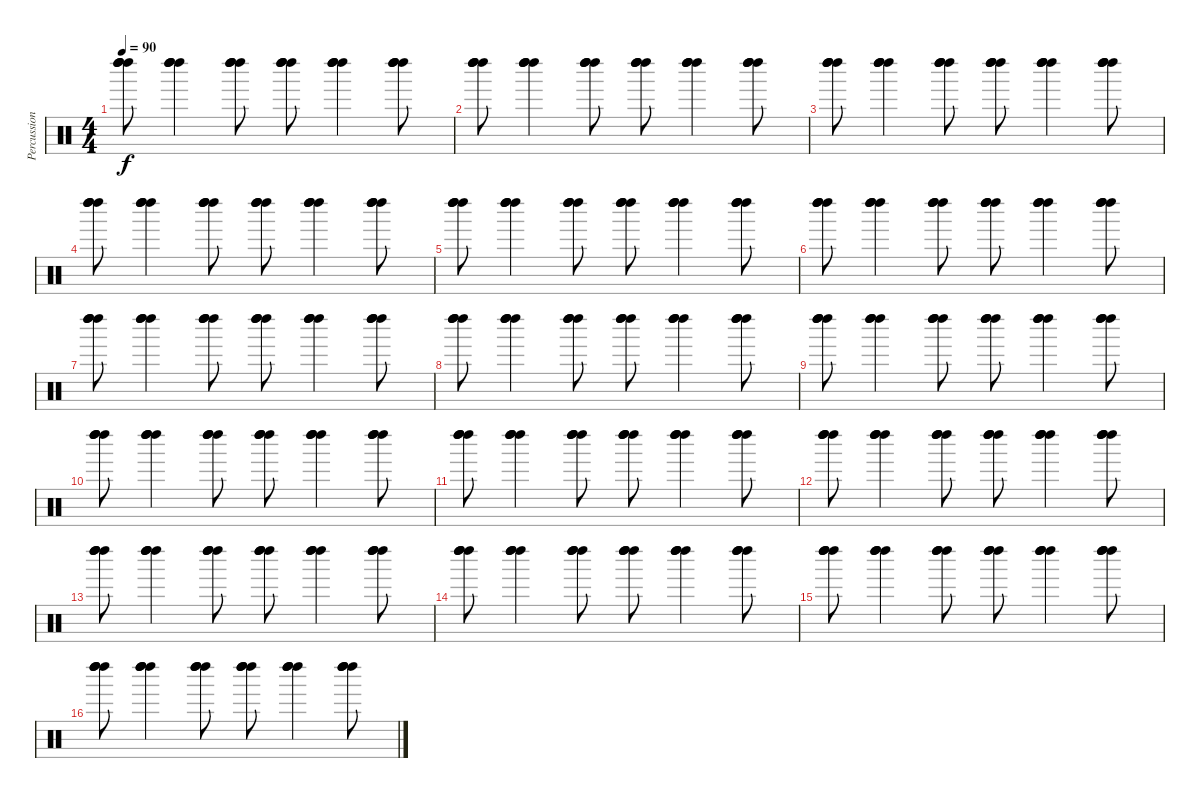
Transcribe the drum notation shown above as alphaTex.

\track ("Percussions" "Percussion") {instrument percussion}
\staff {score}
\articulation defaults
\ts (4 4)
\tempo 90
\clef neutral
\ks c
("Left Maraca (hit)" "Left Maraca (hit)" "Left Maraca (hit)" "Left Maraca (hit)").8{dy f} ("Left Maraca (hit)" "Left Maraca (hit)" "Left Maraca (hit)" "Left Maraca (hit)").4 ("Left Maraca (hit)" "Left Maraca (hit)" "Left Maraca (hit)" "Left Maraca (hit)").8 ("Left Maraca (hit)" "Left Maraca (hit)" "Left Maraca (hit)" "Left Maraca (hit)").8 ("Left Maraca (hit)" "Left Maraca (hit)" "Left Maraca (hit)" "Left Maraca (hit)").4 ("Left Maraca (hit)" "Left Maraca (hit)" "Left Maraca (hit)" "Left Maraca (hit)").8 |
("Left Maraca (hit)" "Left Maraca (hit)" "Left Maraca (hit)" "Left Maraca (hit)").8 ("Left Maraca (hit)" "Left Maraca (hit)" "Left Maraca (hit)" "Left Maraca (hit)").4 ("Left Maraca (hit)" "Left Maraca (hit)" "Left Maraca (hit)" "Left Maraca (hit)").8 ("Left Maraca (hit)" "Left Maraca (hit)" "Left Maraca (hit)" "Left Maraca (hit)").8 ("Left Maraca (hit)" "Left Maraca (hit)" "Left Maraca (hit)" "Left Maraca (hit)").4 ("Left Maraca (hit)" "Left Maraca (hit)" "Left Maraca (hit)" "Left Maraca (hit)").8 |
("Left Maraca (hit)" "Left Maraca (hit)" "Left Maraca (hit)" "Left Maraca (hit)").8 ("Left Maraca (hit)" "Left Maraca (hit)" "Left Maraca (hit)" "Left Maraca (hit)").4 ("Left Maraca (hit)" "Left Maraca (hit)" "Left Maraca (hit)" "Left Maraca (hit)").8 ("Left Maraca (hit)" "Left Maraca (hit)" "Left Maraca (hit)" "Left Maraca (hit)").8 ("Left Maraca (hit)" "Left Maraca (hit)" "Left Maraca (hit)" "Left Maraca (hit)").4 ("Left Maraca (hit)" "Left Maraca (hit)" "Left Maraca (hit)" "Left Maraca (hit)").8 |
("Left Maraca (hit)" "Left Maraca (hit)" "Left Maraca (hit)" "Left Maraca (hit)").8 ("Left Maraca (hit)" "Left Maraca (hit)" "Left Maraca (hit)" "Left Maraca (hit)").4 ("Left Maraca (hit)" "Left Maraca (hit)" "Left Maraca (hit)" "Left Maraca (hit)").8 ("Left Maraca (hit)" "Left Maraca (hit)" "Left Maraca (hit)" "Left Maraca (hit)").8 ("Left Maraca (hit)" "Left Maraca (hit)" "Left Maraca (hit)" "Left Maraca (hit)").4 ("Left Maraca (hit)" "Left Maraca (hit)" "Left Maraca (hit)" "Left Maraca (hit)").8 |
("Left Maraca (hit)" "Left Maraca (hit)" "Left Maraca (hit)" "Left Maraca (hit)").8 ("Left Maraca (hit)" "Left Maraca (hit)" "Left Maraca (hit)" "Left Maraca (hit)").4 ("Left Maraca (hit)" "Left Maraca (hit)" "Left Maraca (hit)" "Left Maraca (hit)").8 ("Left Maraca (hit)" "Left Maraca (hit)" "Left Maraca (hit)" "Left Maraca (hit)").8 ("Left Maraca (hit)" "Left Maraca (hit)" "Left Maraca (hit)" "Left Maraca (hit)").4 ("Left Maraca (hit)" "Left Maraca (hit)" "Left Maraca (hit)" "Left Maraca (hit)").8 |
("Left Maraca (hit)" "Left Maraca (hit)" "Left Maraca (hit)" "Left Maraca (hit)").8 ("Left Maraca (hit)" "Left Maraca (hit)" "Left Maraca (hit)" "Left Maraca (hit)").4 ("Left Maraca (hit)" "Left Maraca (hit)" "Left Maraca (hit)" "Left Maraca (hit)").8 ("Left Maraca (hit)" "Left Maraca (hit)" "Left Maraca (hit)" "Left Maraca (hit)").8 ("Left Maraca (hit)" "Left Maraca (hit)" "Left Maraca (hit)" "Left Maraca (hit)").4 ("Left Maraca (hit)" "Left Maraca (hit)" "Left Maraca (hit)" "Left Maraca (hit)").8 |
("Left Maraca (hit)" "Left Maraca (hit)" "Left Maraca (hit)" "Left Maraca (hit)").8 ("Left Maraca (hit)" "Left Maraca (hit)" "Left Maraca (hit)" "Left Maraca (hit)").4 ("Left Maraca (hit)" "Left Maraca (hit)" "Left Maraca (hit)" "Left Maraca (hit)").8 ("Left Maraca (hit)" "Left Maraca (hit)" "Left Maraca (hit)" "Left Maraca (hit)").8 ("Left Maraca (hit)" "Left Maraca (hit)" "Left Maraca (hit)" "Left Maraca (hit)").4 ("Left Maraca (hit)" "Left Maraca (hit)" "Left Maraca (hit)" "Left Maraca (hit)").8 |
("Left Maraca (hit)" "Left Maraca (hit)" "Left Maraca (hit)" "Left Maraca (hit)").8 ("Left Maraca (hit)" "Left Maraca (hit)" "Left Maraca (hit)" "Left Maraca (hit)").4 ("Left Maraca (hit)" "Left Maraca (hit)" "Left Maraca (hit)" "Left Maraca (hit)").8 ("Left Maraca (hit)" "Left Maraca (hit)" "Left Maraca (hit)" "Left Maraca (hit)").8 ("Left Maraca (hit)" "Left Maraca (hit)" "Left Maraca (hit)" "Left Maraca (hit)").4 ("Left Maraca (hit)" "Left Maraca (hit)" "Left Maraca (hit)" "Left Maraca (hit)").8 |
("Left Maraca (hit)" "Left Maraca (hit)" "Left Maraca (hit)" "Left Maraca (hit)").8 ("Left Maraca (hit)" "Left Maraca (hit)" "Left Maraca (hit)" "Left Maraca (hit)").4 ("Left Maraca (hit)" "Left Maraca (hit)" "Left Maraca (hit)" "Left Maraca (hit)").8 ("Left Maraca (hit)" "Left Maraca (hit)" "Left Maraca (hit)" "Left Maraca (hit)").8 ("Left Maraca (hit)" "Left Maraca (hit)" "Left Maraca (hit)" "Left Maraca (hit)").4 ("Left Maraca (hit)" "Left Maraca (hit)" "Left Maraca (hit)" "Left Maraca (hit)").8 |
("Left Maraca (hit)" "Left Maraca (hit)" "Left Maraca (hit)" "Left Maraca (hit)").8 ("Left Maraca (hit)" "Left Maraca (hit)" "Left Maraca (hit)" "Left Maraca (hit)").4 ("Left Maraca (hit)" "Left Maraca (hit)" "Left Maraca (hit)" "Left Maraca (hit)").8 ("Left Maraca (hit)" "Left Maraca (hit)" "Left Maraca (hit)" "Left Maraca (hit)").8 ("Left Maraca (hit)" "Left Maraca (hit)" "Left Maraca (hit)" "Left Maraca (hit)").4 ("Left Maraca (hit)" "Left Maraca (hit)" "Left Maraca (hit)" "Left Maraca (hit)").8 |
("Left Maraca (hit)" "Left Maraca (hit)" "Left Maraca (hit)" "Left Maraca (hit)").8 ("Left Maraca (hit)" "Left Maraca (hit)" "Left Maraca (hit)" "Left Maraca (hit)").4 ("Left Maraca (hit)" "Left Maraca (hit)" "Left Maraca (hit)" "Left Maraca (hit)").8 ("Left Maraca (hit)" "Left Maraca (hit)" "Left Maraca (hit)" "Left Maraca (hit)").8 ("Left Maraca (hit)" "Left Maraca (hit)" "Left Maraca (hit)" "Left Maraca (hit)").4 ("Left Maraca (hit)" "Left Maraca (hit)" "Left Maraca (hit)" "Left Maraca (hit)").8 |
("Left Maraca (hit)" "Left Maraca (hit)" "Left Maraca (hit)" "Left Maraca (hit)").8 ("Left Maraca (hit)" "Left Maraca (hit)" "Left Maraca (hit)" "Left Maraca (hit)").4 ("Left Maraca (hit)" "Left Maraca (hit)" "Left Maraca (hit)" "Left Maraca (hit)").8 ("Left Maraca (hit)" "Left Maraca (hit)" "Left Maraca (hit)" "Left Maraca (hit)").8 ("Left Maraca (hit)" "Left Maraca (hit)" "Left Maraca (hit)" "Left Maraca (hit)").4 ("Left Maraca (hit)" "Left Maraca (hit)" "Left Maraca (hit)" "Left Maraca (hit)").8 |
("Left Maraca (hit)" "Left Maraca (hit)" "Left Maraca (hit)" "Left Maraca (hit)").8 ("Left Maraca (hit)" "Left Maraca (hit)" "Left Maraca (hit)" "Left Maraca (hit)").4 ("Left Maraca (hit)" "Left Maraca (hit)" "Left Maraca (hit)" "Left Maraca (hit)").8 ("Left Maraca (hit)" "Left Maraca (hit)" "Left Maraca (hit)" "Left Maraca (hit)").8 ("Left Maraca (hit)" "Left Maraca (hit)" "Left Maraca (hit)" "Left Maraca (hit)").4 ("Left Maraca (hit)" "Left Maraca (hit)" "Left Maraca (hit)" "Left Maraca (hit)").8 |
("Left Maraca (hit)" "Left Maraca (hit)" "Left Maraca (hit)" "Left Maraca (hit)").8 ("Left Maraca (hit)" "Left Maraca (hit)" "Left Maraca (hit)" "Left Maraca (hit)").4 ("Left Maraca (hit)" "Left Maraca (hit)" "Left Maraca (hit)" "Left Maraca (hit)").8 ("Left Maraca (hit)" "Left Maraca (hit)" "Left Maraca (hit)" "Left Maraca (hit)").8 ("Left Maraca (hit)" "Left Maraca (hit)" "Left Maraca (hit)" "Left Maraca (hit)").4 ("Left Maraca (hit)" "Left Maraca (hit)" "Left Maraca (hit)" "Left Maraca (hit)").8 |
("Left Maraca (hit)" "Left Maraca (hit)" "Left Maraca (hit)" "Left Maraca (hit)").8 ("Left Maraca (hit)" "Left Maraca (hit)" "Left Maraca (hit)" "Left Maraca (hit)").4 ("Left Maraca (hit)" "Left Maraca (hit)" "Left Maraca (hit)" "Left Maraca (hit)").8 ("Left Maraca (hit)" "Left Maraca (hit)" "Left Maraca (hit)" "Left Maraca (hit)").8 ("Left Maraca (hit)" "Left Maraca (hit)" "Left Maraca (hit)" "Left Maraca (hit)").4 ("Left Maraca (hit)" "Left Maraca (hit)" "Left Maraca (hit)" "Left Maraca (hit)").8 |
("Left Maraca (hit)" "Left Maraca (hit)" "Left Maraca (hit)" "Left Maraca (hit)").8 ("Left Maraca (hit)" "Left Maraca (hit)" "Left Maraca (hit)" "Left Maraca (hit)").4 ("Left Maraca (hit)" "Left Maraca (hit)" "Left Maraca (hit)" "Left Maraca (hit)").8 ("Left Maraca (hit)" "Left Maraca (hit)" "Left Maraca (hit)" "Left Maraca (hit)").8 ("Left Maraca (hit)" "Left Maraca (hit)" "Left Maraca (hit)" "Left Maraca (hit)").4 ("Left Maraca (hit)" "Left Maraca (hit)" "Left Maraca (hit)" "Left Maraca (hit)").8
